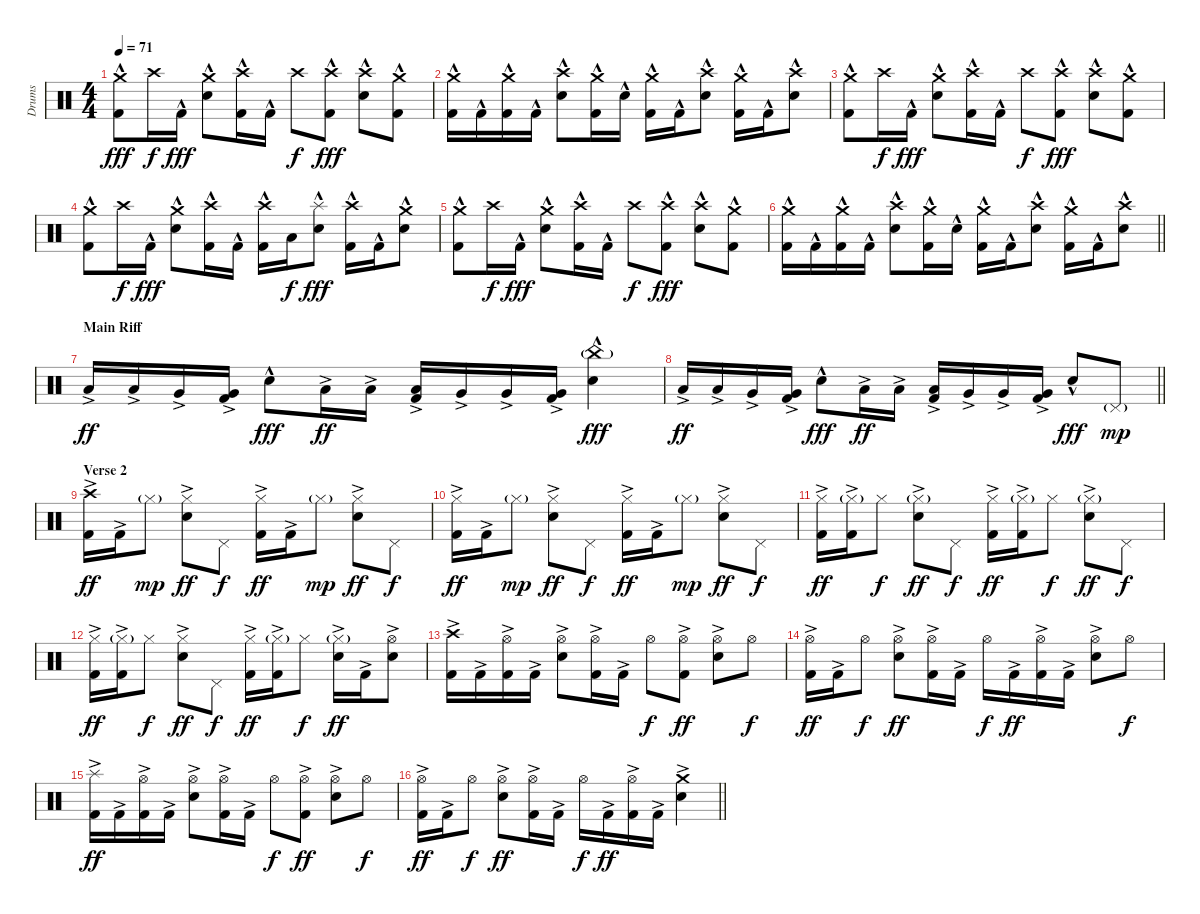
\track ("Drums" "Drums") {instrument percussion}
\staff {score}
\articulation defaults
\ts (4 4)
\tempo 71
\clef neutral
\ks c
("Crash medium (hit)" "Kick (hit) 2"{hac}).8{dy fff} "Crash high (hit)".16{dy f} "Kick (hit) 2"{hac}.16{dy fff} ("Crash medium (hit)" "Electric Snare (hit)"{hac}).8 ("Crash high (hit)" "Kick (hit) 2"{hac}).16 "Kick (hit) 2"{hac}.16 "Crash high (hit)".8{dy f} ("Crash high (hit)" "Kick (hit) 2"{hac}).8{dy fff} ("Crash high (hit)" "Electric Snare (hit)"{hac}).8 ("Crash medium (hit)" "Kick (hit) 2"{hac}).8 |
("Crash medium (hit)" "Kick (hit) 2"{hac}).16 "Kick (hit) 2"{hac}.16 ("Crash medium (hit)" "Kick (hit) 2"{hac}).16 "Kick (hit) 2"{hac}.16 ("Crash high (hit)" "Electric Snare (hit)"{hac}).8 ("Crash medium (hit)" "Kick (hit) 2"{hac}).16 "Electric Snare (hit)"{hac}.16 ("Crash medium (hit)" "Kick (hit) 2"{hac}).16 "Kick (hit) 2"{hac}.16 ("Crash high (hit)" "Electric Snare (hit)"{hac}).8 ("Crash medium (hit)" "Kick (hit) 2"{hac}).16 "Kick (hit) 2"{hac}.16 ("Crash high (hit)" "Electric Snare (hit)"{hac}).8 |
("Crash medium (hit)" "Kick (hit) 2"{hac}).8 "Crash high (hit)".16{dy f} "Kick (hit) 2"{hac}.16{dy fff} ("Crash medium (hit)" "Electric Snare (hit)"{hac}).8 ("Crash high (hit)" "Kick (hit) 2"{hac}).16 "Kick (hit) 2"{hac}.16 "Crash high (hit)".8{dy f} ("Crash high (hit)" "Kick (hit) 2"{hac}).8{dy fff} ("Crash high (hit)" "Electric Snare (hit)"{hac}).8 ("Crash medium (hit)" "Kick (hit) 2"{hac}).8 |
("Crash medium (hit)" "Kick (hit) 2"{hac}).8 "Crash high (hit)".16{dy f} "Kick (hit) 2"{hac}.16{dy fff} ("Crash medium (hit)" "Electric Snare (hit)"{hac}).8 ("Crash high (hit)" "Kick (hit) 2"{hac}).16 "Kick (hit) 2"{hac}.16 ("Crash high (hit)" "Kick (hit) 2"{hac}).16 "Low Floor Tom (hit)".16{dy f} ("Splash (hit)" "Electric Snare (hit)"{hac}).8{dy fff} ("Crash high (hit)" "Kick (hit) 2"{hac}).16 "Kick (hit) 2"{hac}.16 ("Crash medium (hit)" "Electric Snare (hit)"{hac}).8 |
("Crash medium (hit)" "Kick (hit) 2"{hac}).8 "Crash high (hit)".16{dy f} "Kick (hit) 2"{hac}.16{dy fff} ("Crash medium (hit)" "Electric Snare (hit)"{hac}).8 ("Crash high (hit)" "Kick (hit) 2"{hac}).16 "Kick (hit) 2"{hac}.16 "Crash high (hit)".8{dy f} ("Crash high (hit)" "Kick (hit) 2"{hac}).8{dy fff} ("Crash high (hit)" "Electric Snare (hit)"{hac}).8 ("Crash medium (hit)" "Kick (hit) 2"{hac}).8 |
\barLineRight lightlight
("Crash medium (hit)" "Kick (hit) 2"{hac}).16 "Kick (hit) 2"{hac}.16 ("Crash medium (hit)" "Kick (hit) 2"{hac}).16 "Kick (hit) 2"{hac}.16 ("Crash high (hit)" "Electric Snare (hit)"{hac}).8 ("Crash medium (hit)" "Kick (hit) 2"{hac}).16 "Electric Snare (hit)"{hac}.16 ("Crash medium (hit)" "Kick (hit) 2"{hac}).16 "Kick (hit) 2"{hac}.16 ("Crash high (hit)" "Electric Snare (hit)"{hac}).8 ("Crash medium (hit)" "Kick (hit) 2"{hac}).16 "Kick (hit) 2"{hac}.16 ("Crash high (hit)" "Electric Snare (hit)"{hac}).8 |
\section ("" "Main Riff")
"Low Floor Tom (hit)"{ac}.16{dy ff} "Low Floor Tom (hit)"{ac}.16 "Very Low Tom (hit)"{ac}.16 ("Very Low Tom (hit)"{ac} "Kick (hit) 2"{ac}).16 "Electric Snare (hit)"{hac}.8{dy fff} "Low Floor Tom (hit)"{ac}.16{dy ff} "Low Floor Tom (hit)"{ac}.16 ("Low Floor Tom (hit)"{ac} "Kick (hit) 2"{ac}).16 "Very Low Tom (hit)"{ac}.16 "Very Low Tom (hit)"{ac}.16 ("Very Low Tom (hit)"{ac} "Kick (hit) 2"{ac}).16 ("China (hit)"{g} "Electric Snare (hit)"{hac}).4{dy fff} |
\barLineRight lightlight "Low Floor Tom (hit)"{ac}.16{dy ff} "Low Floor Tom (hit)"{ac}.16 "Very Low Tom (hit)"{ac}.16
("Very Low Tom (hit)" "Kick (hit) 2"{ac}).16 "Electric Snare (hit)"{hac}.8{dy fff} "Low Floor Tom (hit)"{ac}.16{dy ff} "Low Floor Tom (hit)"{ac}.16 ("Low Floor Tom (hit)"{ac} "Kick (hit) 2"{ac}).16 "Very Low Tom (hit)"{ac}.16 "Very Low Tom (hit)"{ac}.16 ("Very Low Tom (hit)"{ac} "Kick (hit) 2"{ac}).16 "Electric Snare (hit)"{hac}.8{dy fff} "Pedal Hi-Hat (hit)"{g}.8{dy mp} |
\section ("" "Verse 2")
("Crash high (hit)" "Kick (hit) 2"{ac}).16{dy ff} "Kick (hit) 2"{ac}.16 "Hi-Hat (closed)"{g}.8{dy mp} ("Hi-Hat (closed)" "Electric Snare (hit)"{ac}).8{dy ff} "Pedal Hi-Hat (hit)".8{dy f} ("Hi-Hat (closed)" "Kick (hit) 2"{ac}).16{dy ff} "Kick (hit) 2"{ac}.16 "Hi-Hat (closed)"{g}.8{dy mp} ("Hi-Hat (closed)" "Electric Snare (hit)"{ac}).8{dy ff} "Pedal Hi-Hat (hit)".8{dy f} |
("Hi-Hat (closed)" "Kick (hit) 2"{ac}).16{dy ff} "Kick (hit) 2"{ac}.16 "Hi-Hat (closed)"{g}.8{dy mp} ("Hi-Hat (closed)" "Electric Snare (hit)"{ac}).8{dy ff} "Pedal Hi-Hat (hit)".8{dy f} ("Hi-Hat (closed)" "Kick (hit) 2"{ac}).16{dy ff} "Kick (hit) 2"{ac}.16 "Hi-Hat (closed)"{g}.8{dy mp} ("Hi-Hat (closed)" "Electric Snare (hit)"{ac}).8{dy ff} "Pedal Hi-Hat (hit)".8{dy f} |
("Hi-Hat (closed)" "Kick (hit) 2"{ac}).16{dy ff} ("Hi-Hat (closed)"{g} "Kick (hit) 2"{ac}).16 "Hi-Hat (closed)".8{dy f} ("Hi-Hat (closed)"{g} "Electric Snare (hit)"{ac}).8{dy ff} "Pedal Hi-Hat (hit)".8{dy f} ("Hi-Hat (closed)" "Kick (hit) 2"{ac}).16{dy ff} ("Hi-Hat (closed)"{g} "Kick (hit) 2"{ac}).16 "Hi-Hat (closed)".8{dy f} ("Hi-Hat (closed)"{g} "Electric Snare (hit)"{ac}).8{dy ff} "Pedal Hi-Hat (hit)".8{dy f} |
("Hi-Hat (closed)" "Kick (hit) 2"{ac}).16{dy ff} ("Hi-Hat (closed)"{g} "Kick (hit) 2"{ac}).16 "Hi-Hat (closed)".8{dy f} ("Hi-Hat (closed)" "Electric Snare (hit)"{ac}).8{dy ff} "Pedal Hi-Hat (hit)".8{dy f} ("Hi-Hat (closed)" "Kick (hit) 2"{ac}).16{dy ff} ("Hi-Hat (closed)"{g} "Kick (hit) 2"{ac}).16 "Hi-Hat (closed)".8{dy f} ("Hi-Hat (closed)"{g} "Electric Snare (hit)"{ac}).16{dy ff} "Kick (hit) 2"{ac}.16 ("Hi-Hat (open)" "Electric Snare (hit)"{ac}).8 |
("Crash high (hit)" "Kick (hit) 2"{ac}).16 "Kick (hit) 2"{ac}.16 ("Hi-Hat (open)" "Kick (hit) 2"{ac}).16 "Kick (hit) 2"{ac}.16 ("Hi-Hat (open)" "Electric Snare (hit)"{ac}).8 ("Hi-Hat (open)" "Kick (hit) 2"{ac}).16 "Kick (hit) 2"{ac}.16 "Hi-Hat (open)".8{dy f} ("Hi-Hat (open)" "Kick (hit) 2"{ac}).8{dy ff} ("Hi-Hat (open)" "Electric Snare (hit)"{ac}).8 "Hi-Hat (open)".8{dy f} |
("Hi-Hat (open)" "Kick (hit) 2"{ac}).16{dy ff} "Kick (hit) 2"{ac}.16 "Hi-Hat (open)".8{dy f} ("Hi-Hat (open)" "Electric Snare (hit)"{ac}).8{dy ff} ("Hi-Hat (open)" "Kick (hit) 2"{ac}).16 "Kick (hit) 2"{ac}.16 "Hi-Hat (open)".16{dy f} "Kick (hit) 2"{ac}.16{dy ff} ("Hi-Hat (open)" "Kick (hit) 2"{ac}).16 "Kick (hit) 2"{ac}.16 ("Hi-Hat (open)" "Electric Snare (hit)"{ac}).8 "Hi-Hat (open)".8{dy f} |
("Splash (hit)" "Kick (hit) 2"{ac}).16{dy ff} "Kick (hit) 2"{ac}.16 ("Hi-Hat (open)" "Kick (hit) 2"{ac}).16 "Kick (hit) 2"{ac}.16 ("Hi-Hat (open)" "Electric Snare (hit)"{ac}).8 ("Hi-Hat (open)" "Kick (hit) 2"{ac}).16 "Kick (hit) 2"{ac}.16 "Hi-Hat (open)".8{dy f} ("Hi-Hat (open)" "Kick (hit) 2"{ac}).8{dy ff} ("Hi-Hat (open)" "Electric Snare (hit)"{ac}).8 "Hi-Hat (open)".8{dy f} |
\barLineRight lightlight
("Hi-Hat (open)" "Kick (hit) 2"{ac}).16{dy ff} "Kick (hit) 2"{ac}.16 "Hi-Hat (open)".8{dy f} ("Hi-Hat (open)" "Electric Snare (hit)"{ac}).8{dy ff} ("Hi-Hat (open)" "Kick (hit) 2"{ac}).16 "Kick (hit) 2"{ac}.16 "Hi-Hat (open)".16{dy f} "Kick (hit) 2"{ac}.16{dy ff} ("Hi-Hat (open)" "Kick (hit) 2"{ac}).16 "Kick (hit) 2"{ac}.16 ("Crash medium (hit)" "Electric Snare (hit)"{ac}).4
